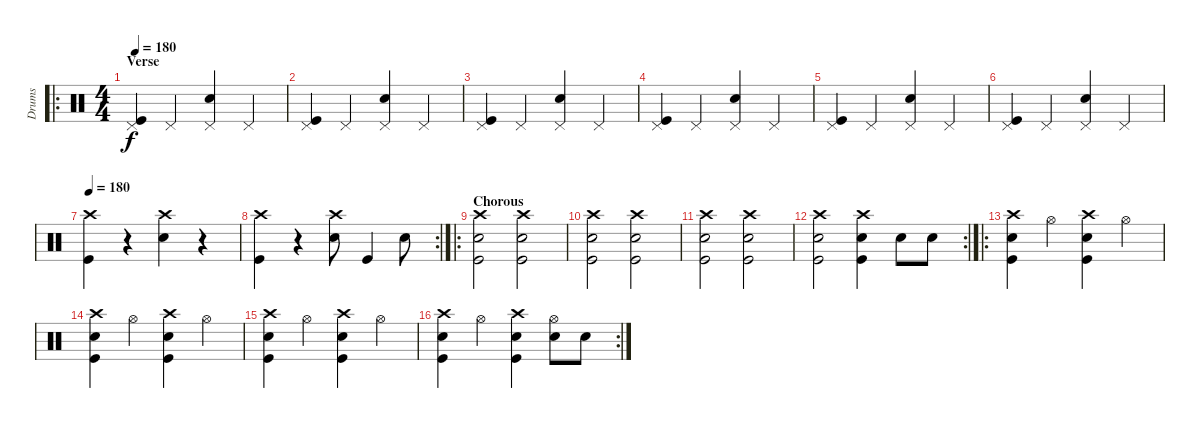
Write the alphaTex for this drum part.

\track ("Drums" "Drums") {instrument percussion}
\staff {score}
\articulation defaults
\ro
\ts (4 4)
\section ("" "Verse")
\tempo 180
\clef neutral
\ks c
("Pedal Hi-Hat (hit)" "Kick (hit)").4{dy f} "Pedal Hi-Hat (hit)".4 ("Pedal Hi-Hat (hit)" "Snare (hit) 2").4 "Pedal Hi-Hat (hit)".4 |
("Pedal Hi-Hat (hit)" "Kick (hit)").4 "Pedal Hi-Hat (hit)".4 ("Pedal Hi-Hat (hit)" "Snare (hit) 2").4 "Pedal Hi-Hat (hit)".4 |
("Pedal Hi-Hat (hit)" "Kick (hit)").4 "Pedal Hi-Hat (hit)".4 ("Pedal Hi-Hat (hit)" "Snare (hit) 2").4 "Pedal Hi-Hat (hit)".4 |
("Pedal Hi-Hat (hit)" "Kick (hit)").4 "Pedal Hi-Hat (hit)".4 ("Pedal Hi-Hat (hit)" "Snare (hit) 2").4 "Pedal Hi-Hat (hit)".4 |
("Pedal Hi-Hat (hit)" "Kick (hit)").4 "Pedal Hi-Hat (hit)".4 ("Pedal Hi-Hat (hit)" "Snare (hit) 2").4 "Pedal Hi-Hat (hit)".4 |
("Pedal Hi-Hat (hit)" "Kick (hit)").4 "Pedal Hi-Hat (hit)".4 ("Pedal Hi-Hat (hit)" "Snare (hit) 2").4 "Pedal Hi-Hat (hit)".4 |
\tempo 180
("Crash high (hit)" "Kick (hit)").4 r.4 ("Crash high (hit)" "Snare (hit) 2").4 r.4 |
\rc 2
("Crash high (hit)" "Kick (hit)").4 r.4 ("Crash high (hit)" "Snare (hit) 2").8 "Kick (hit)".4 "Snare (hit) 2".8 |
\ro
\section ("" "Chorous")
("Crash high (hit)" "Snare (hit) 2" "Kick (hit)").2 ("Crash high (hit)" "Snare (hit) 2" "Kick (hit)").2 |
("Crash high (hit)" "Snare (hit) 2" "Kick (hit)").2 ("Crash high (hit)" "Snare (hit) 2" "Kick (hit)").2 |
("Crash high (hit)" "Snare (hit) 2" "Kick (hit)").2 ("Crash high (hit)" "Snare (hit) 2" "Kick (hit)").2 |
\rc 2
("Crash high (hit)" "Snare (hit) 2" "Kick (hit)").2 ("Crash high (hit)" "Snare (hit) 2" "Kick (hit)").4 "Snare (hit) 2".8 "Snare (hit) 2".8 |
\ro
("Crash high (hit)" "Snare (hit) 2" "Kick (hit)").4 "Hi-Hat (open)".4 ("Crash high (hit)" "Snare (hit) 2" "Kick (hit)").4 "Hi-Hat (open)".4 |
("Crash high (hit)" "Snare (hit) 2" "Kick (hit)").4 "Hi-Hat (open)".4 ("Crash high (hit)" "Snare (hit) 2" "Kick (hit)").4 "Hi-Hat (open)".4 |
("Crash high (hit)" "Snare (hit) 2" "Kick (hit)").4 "Hi-Hat (open)".4 ("Crash high (hit)" "Snare (hit) 2" "Kick (hit)").4 "Hi-Hat (open)".4 |
\rc 2
("Crash high (hit)" "Snare (hit) 2" "Kick (hit)").4 "Hi-Hat (open)".4 ("Crash high (hit)" "Snare (hit) 2" "Kick (hit)").4 ("Hi-Hat (open)" "Snare (hit) 2").8 "Snare (hit) 2".8
